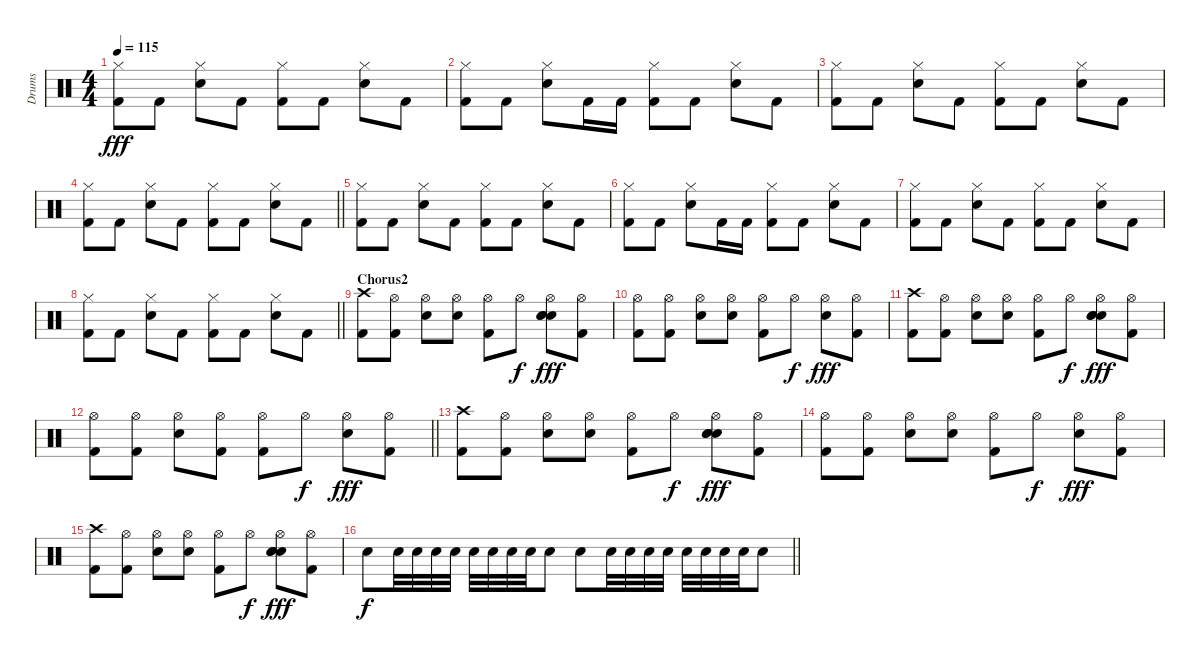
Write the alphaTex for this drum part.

\track ("Drums" "Drums") {instrument percussion}
\staff {score}
\articulation defaults
\ts (4 4)
\tempo 115
\clef neutral
\ks c
("Hi-Hat (closed)" "Kick (hit) 2").8{dy fff} "Kick (hit) 2".8 ("Hi-Hat (closed)" "Electric Snare (hit)").8 "Kick (hit) 2".8 ("Hi-Hat (closed)" "Kick (hit) 2").8 "Kick (hit) 2".8 ("Hi-Hat (closed)" "Electric Snare (hit)").8 "Kick (hit) 2".8 |
("Hi-Hat (closed)" "Kick (hit) 2").8 "Kick (hit) 2".8 ("Hi-Hat (closed)" "Electric Snare (hit)").8 "Kick (hit) 2".16 "Kick (hit) 2".16 ("Hi-Hat (closed)" "Kick (hit) 2").8 "Kick (hit) 2".8 ("Hi-Hat (closed)" "Electric Snare (hit)").8 "Kick (hit) 2".8 |
("Hi-Hat (closed)" "Kick (hit) 2").8 "Kick (hit) 2".8 ("Hi-Hat (closed)" "Electric Snare (hit)").8 "Kick (hit) 2".8 ("Hi-Hat (closed)" "Kick (hit) 2").8 "Kick (hit) 2".8 ("Hi-Hat (closed)" "Electric Snare (hit)").8 "Kick (hit) 2".8 |
\barLineRight lightlight
("Hi-Hat (closed)" "Kick (hit) 2").8 "Kick (hit) 2".8 ("Hi-Hat (closed)" "Electric Snare (hit)").8 "Kick (hit) 2".8 ("Hi-Hat (closed)" "Kick (hit) 2").8 "Kick (hit) 2".8 ("Hi-Hat (closed)" "Electric Snare (hit)").8 "Kick (hit) 2".8 |
("Hi-Hat (closed)" "Kick (hit) 2").8 "Kick (hit) 2".8 ("Hi-Hat (closed)" "Electric Snare (hit)").8 "Kick (hit) 2".8 ("Hi-Hat (closed)" "Kick (hit) 2").8 "Kick (hit) 2".8 ("Hi-Hat (closed)" "Electric Snare (hit)").8 "Kick (hit) 2".8 |
("Hi-Hat (closed)" "Kick (hit) 2").8 "Kick (hit) 2".8 ("Hi-Hat (closed)" "Electric Snare (hit)").8 "Kick (hit) 2".16 "Kick (hit) 2".16 ("Hi-Hat (closed)" "Kick (hit) 2").8 "Kick (hit) 2".8 ("Hi-Hat (closed)" "Electric Snare (hit)").8 "Kick (hit) 2".8 |
("Hi-Hat (closed)" "Kick (hit) 2").8 "Kick (hit) 2".8 ("Hi-Hat (closed)" "Electric Snare (hit)").8 "Kick (hit) 2".8 ("Hi-Hat (closed)" "Kick (hit) 2").8 "Kick (hit) 2".8 ("Hi-Hat (closed)" "Electric Snare (hit)").8 "Kick (hit) 2".8 |
\barLineRight lightlight
("Hi-Hat (closed)" "Kick (hit) 2").8 "Kick (hit) 2".8 ("Hi-Hat (closed)" "Electric Snare (hit)").8 "Kick (hit) 2".8 ("Hi-Hat (closed)" "Kick (hit) 2").8 "Kick (hit) 2".8 ("Hi-Hat (closed)" "Electric Snare (hit)").8 "Kick (hit) 2".8 |
\section ("" "Chorus2")
("Crash high (hit)" "Kick (hit) 2").8 ("Hi-Hat (open)" "Kick (hit) 2").8 ("Hi-Hat (open)" "Electric Snare (hit)").8 ("Hi-Hat (open)" "Electric Snare (hit)").8 ("Hi-Hat (open)" "Kick (hit) 2").8 "Hi-Hat (open)".8{dy f} ("Hi-Hat (open)" "Electric Snare (hit)" "Hand Clap (hit)" "Hand Clap (hit)").8{dy fff} ("Hi-Hat (open)" "Kick (hit) 2").8 |
("Hi-Hat (open)" "Kick (hit) 2").8 ("Hi-Hat (open)" "Kick (hit) 2").8 ("Hi-Hat (open)" "Electric Snare (hit)").8 ("Hi-Hat (open)" "Electric Snare (hit)").8 ("Hi-Hat (open)" "Kick (hit) 2").8 "Hi-Hat (open)".8{dy f} ("Hi-Hat (open)" "Electric Snare (hit)").8{dy fff} ("Hi-Hat (open)" "Kick (hit) 2").8 |
("Crash high (hit)" "Kick (hit) 2").8 ("Hi-Hat (open)" "Kick (hit) 2").8 ("Hi-Hat (open)" "Electric Snare (hit)").8 ("Hi-Hat (open)" "Electric Snare (hit)").8 ("Hi-Hat (open)" "Kick (hit) 2").8 "Hi-Hat (open)".8{dy f} ("Hi-Hat (open)" "Electric Snare (hit)" "Hand Clap (hit)" "Hand Clap (hit)").8{dy fff} ("Hi-Hat (open)" "Kick (hit) 2").8 |
\barLineRight lightlight
("Hi-Hat (open)" "Kick (hit) 2").8 ("Hi-Hat (open)" "Kick (hit) 2").8 ("Hi-Hat (open)" "Electric Snare (hit)").8 ("Hi-Hat (open)" "Kick (hit) 2").8 ("Hi-Hat (open)" "Kick (hit) 2").8 "Hi-Hat (open)".8{dy f} ("Hi-Hat (open)" "Electric Snare (hit)").8{dy fff} ("Hi-Hat (open)" "Kick (hit) 2").8 |
("Crash high (hit)" "Kick (hit) 2").8 ("Hi-Hat (open)" "Kick (hit) 2").8 ("Hi-Hat (open)" "Electric Snare (hit)").8 ("Hi-Hat (open)" "Electric Snare (hit)").8 ("Hi-Hat (open)" "Kick (hit) 2").8 "Hi-Hat (open)".8{dy f} ("Hi-Hat (open)" "Electric Snare (hit)" "Hand Clap (hit)" "Hand Clap (hit)").8{dy fff} ("Hi-Hat (open)" "Kick (hit) 2").8 |
("Hi-Hat (open)" "Kick (hit) 2").8 ("Hi-Hat (open)" "Kick (hit) 2").8 ("Hi-Hat (open)" "Electric Snare (hit)").8 ("Hi-Hat (open)" "Electric Snare (hit)").8 ("Hi-Hat (open)" "Kick (hit) 2").8 "Hi-Hat (open)".8{dy f} ("Hi-Hat (open)" "Electric Snare (hit)").8{dy fff} ("Hi-Hat (open)" "Kick (hit) 2").8 |
("Crash high (hit)" "Kick (hit) 2").8 ("Hi-Hat (open)" "Kick (hit) 2").8 ("Hi-Hat (open)" "Electric Snare (hit)").8 ("Hi-Hat (open)" "Electric Snare (hit)").8 ("Hi-Hat (open)" "Kick (hit) 2").8 "Hi-Hat (open)".8{dy f} ("Hi-Hat (open)" "Electric Snare (hit)" "Hand Clap (hit)" "Hand Clap (hit)").8{dy fff} ("Hi-Hat (open)" "Kick (hit) 2").8 |
\barLineRight lightlight "Electric Snare (hit)".8{dy f} "Electric Snare (hit)".32 "Electric Snare (hit)".32 "Electric Snare (hit)".32 "Electric Snare (hit)".32 "Electric Snare (hit)".32 "Electric Snare (hit)".32 "Electric Snare (hit)".32 "Electric Snare (hit)".32 "Electric Snare (hit)".8 "Electric Snare (hit)".8 "Electric Snare (hit)".32 "Electric Snare (hit)".32 "Electric Snare (hit)".32 "Electric Snare (hit)".32 "Electric Snare (hit)".32 "Electric Snare (hit)".32 "Electric Snare (hit)".32 "Electric Snare (hit)".32 "Electric Snare (hit)".8
